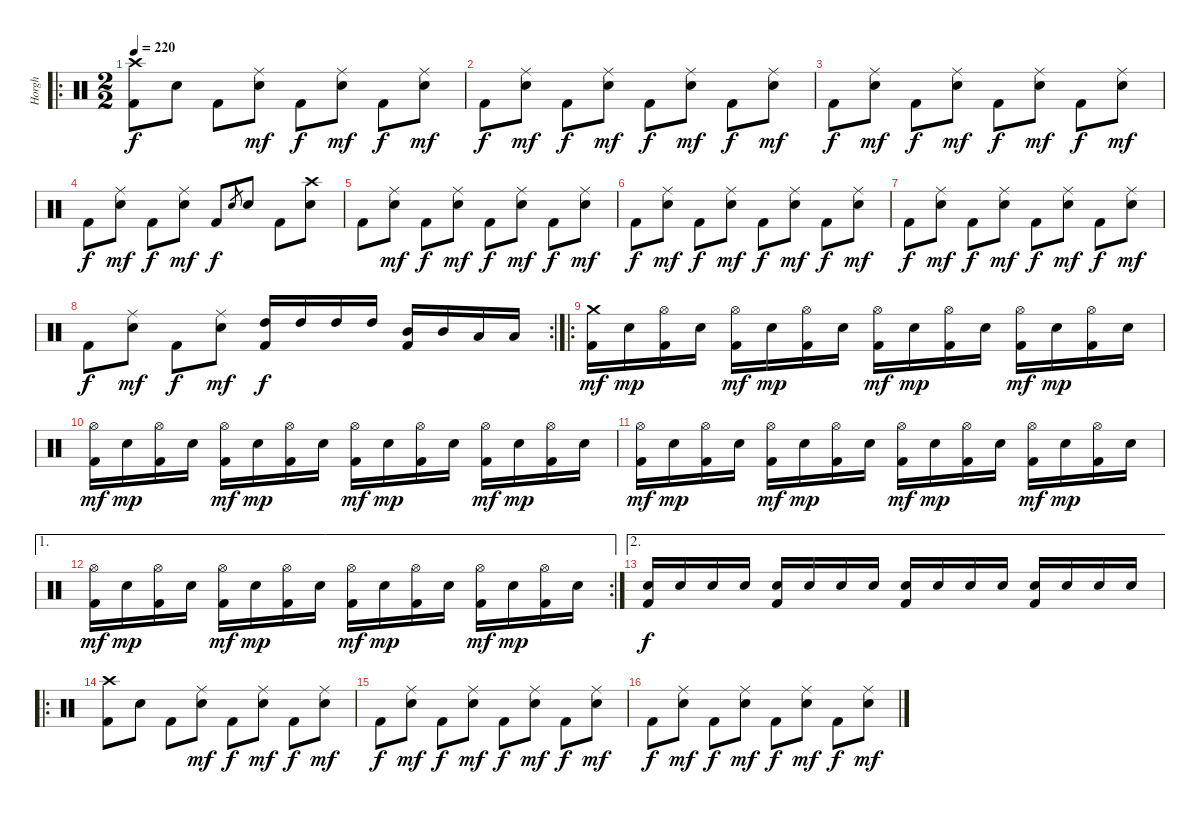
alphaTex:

\track ("Horgh" "Horgh") {instrument percussion}
\staff {score}
\articulation defaults
\ro
\ts (2 2)
\tempo 220
\clef neutral
\ks c
("Crash high (hit)" "Kick (hit) 2").8{dy f} "Electric Snare (hit)".8 "Kick (hit) 2".8 ("Ride (middle)" "Electric Snare (hit)").8{dy mf} "Kick (hit) 2".8{dy f} ("Ride (middle)" "Electric Snare (hit)").8{dy mf} "Kick (hit) 2".8{dy f} ("Ride (middle)" "Electric Snare (hit)").8{dy mf} |
"Kick (hit) 2".8{dy f} ("Ride (middle)" "Electric Snare (hit)").8{dy mf} "Kick (hit) 2".8{dy f} ("Ride (middle)" "Electric Snare (hit)").8{dy mf} "Kick (hit) 2".8{dy f} ("Ride (middle)" "Electric Snare (hit)").8{dy mf} "Kick (hit) 2".8{dy f} ("Ride (middle)" "Electric Snare (hit)").8{dy mf} |
"Kick (hit) 2".8{dy f} ("Ride (middle)" "Electric Snare (hit)").8{dy mf} "Kick (hit) 2".8{dy f} ("Ride (middle)" "Electric Snare (hit)").8{dy mf} "Kick (hit) 2".8{dy f} ("Ride (middle)" "Electric Snare (hit)").8{dy mf} "Kick (hit) 2".8{dy f} ("Ride (middle)" "Electric Snare (hit)").8{dy mf} |
"Kick (hit) 2".8{dy f} ("Ride (middle)" "Electric Snare (hit)").8{dy mf} "Kick (hit) 2".8{dy f} ("Ride (middle)" "Electric Snare (hit)").8{dy mf} "Kick (hit) 2".8{dy f} "Electric Snare (hit)".8{gr} "Electric Snare (hit)".8 "Kick (hit) 2".8 ("Crash high (hit)" "Electric Snare (hit)").8 |
"Kick (hit) 2".8 ("Ride (middle)" "Electric Snare (hit)").8{dy mf} "Kick (hit) 2".8{dy f} ("Ride (middle)" "Electric Snare (hit)").8{dy mf} "Kick (hit) 2".8{dy f} ("Ride (middle)" "Electric Snare (hit)").8{dy mf} "Kick (hit) 2".8{dy f} ("Ride (middle)" "Electric Snare (hit)").8{dy mf} |
"Kick (hit) 2".8{dy f} ("Ride (middle)" "Electric Snare (hit)").8{dy mf} "Kick (hit) 2".8{dy f} ("Ride (middle)" "Electric Snare (hit)").8{dy mf} "Kick (hit) 2".8{dy f} ("Ride (middle)" "Electric Snare (hit)").8{dy mf} "Kick (hit) 2".8{dy f} ("Ride (middle)" "Electric Snare (hit)").8{dy mf} |
"Kick (hit) 2".8{dy f} ("Ride (middle)" "Electric Snare (hit)").8{dy mf} "Kick (hit) 2".8{dy f} ("Ride (middle)" "Electric Snare (hit)").8{dy mf} "Kick (hit) 2".8{dy f} ("Ride (middle)" "Electric Snare (hit)").8{dy mf} "Kick (hit) 2".8{dy f} ("Ride (middle)" "Electric Snare (hit)").8{dy mf} |
\rc 2 "Kick (hit) 2".8{dy f}
("Ride (middle)" "Electric Snare (hit)").8{dy mf} "Kick (hit) 2".8{dy f} ("Ride (middle)" "Electric Snare (hit)").8{dy mf} ("High Tom (hit)" "Kick (hit) 2").16{dy f} "High Tom (hit)".16 "High Tom (hit)".16 "High Tom (hit)".16 ("Mid Tom (hit)" "Kick (hit) 2").16 "Mid Tom (hit)".16 "Low Tom (hit)".16 "Low Tom (hit)".16 |
\ro
("Crash medium (hit)" "Kick (hit) 2").16{dy mf} "Electric Snare (hit)".16{dy mp} ("Hi-Hat (open)" "Kick (hit) 2").16 "Electric Snare (hit)".16 ("Hi-Hat (open)" "Kick (hit) 2").16{dy mf} "Electric Snare (hit)".16{dy mp} ("Hi-Hat (open)" "Kick (hit) 2").16 "Electric Snare (hit)".16 ("Hi-Hat (open)" "Kick (hit) 2").16{dy mf} "Electric Snare (hit)".16{dy mp} ("Hi-Hat (open)" "Kick (hit) 2").16 "Electric Snare (hit)".16 ("Hi-Hat (open)" "Kick (hit) 2").16{dy mf} "Electric Snare (hit)".16{dy mp} ("Hi-Hat (open)" "Kick (hit) 2").16 "Electric Snare (hit)".16 |
("Hi-Hat (open)" "Kick (hit) 2").16{dy mf} "Electric Snare (hit)".16{dy mp} ("Hi-Hat (open)" "Kick (hit) 2").16 "Electric Snare (hit)".16 ("Hi-Hat (open)" "Kick (hit) 2").16{dy mf} "Electric Snare (hit)".16{dy mp} ("Hi-Hat (open)" "Kick (hit) 2").16 "Electric Snare (hit)".16 ("Hi-Hat (open)" "Kick (hit) 2").16{dy mf} "Electric Snare (hit)".16{dy mp} ("Hi-Hat (open)" "Kick (hit) 2").16 "Electric Snare (hit)".16 ("Hi-Hat (open)" "Kick (hit) 2").16{dy mf} "Electric Snare (hit)".16{dy mp} ("Hi-Hat (open)" "Kick (hit) 2").16 "Electric Snare (hit)".16 |
("Hi-Hat (open)" "Kick (hit) 2").16{dy mf} "Electric Snare (hit)".16{dy mp} ("Hi-Hat (open)" "Kick (hit) 2").16 "Electric Snare (hit)".16 ("Hi-Hat (open)" "Kick (hit) 2").16{dy mf} "Electric Snare (hit)".16{dy mp} ("Hi-Hat (open)" "Kick (hit) 2").16 "Electric Snare (hit)".16 ("Hi-Hat (open)" "Kick (hit) 2").16{dy mf} "Electric Snare (hit)".16{dy mp} ("Hi-Hat (open)" "Kick (hit) 2").16 "Electric Snare (hit)".16 ("Hi-Hat (open)" "Kick (hit) 2").16{dy mf} "Electric Snare (hit)".16{dy mp} ("Hi-Hat (open)" "Kick (hit) 2").16 "Electric Snare (hit)".16 |
\ae 1
\rc 2
("Hi-Hat (open)" "Kick (hit) 2").16{dy mf} "Electric Snare (hit)".16{dy mp} ("Hi-Hat (open)" "Kick (hit) 2").16 "Electric Snare (hit)".16 ("Hi-Hat (open)" "Kick (hit) 2").16{dy mf} "Electric Snare (hit)".16{dy mp} ("Hi-Hat (open)" "Kick (hit) 2").16 "Electric Snare (hit)".16 ("Hi-Hat (open)" "Kick (hit) 2").16{dy mf} "Electric Snare (hit)".16{dy mp} ("Hi-Hat (open)" "Kick (hit) 2").16 "Electric Snare (hit)".16 ("Hi-Hat (open)" "Kick (hit) 2").16{dy mf} "Electric Snare (hit)".16{dy mp} ("Hi-Hat (open)" "Kick (hit) 2").16 "Electric Snare (hit)".16 |
\ae 2
("Electric Snare (hit)" "Kick (hit) 2").16{dy f} "Electric Snare (hit)".16 "Electric Snare (hit)".16 "Electric Snare (hit)".16 ("Electric Snare (hit)" "Kick (hit) 2").16 "Electric Snare (hit)".16 "Electric Snare (hit)".16 "Electric Snare (hit)".16 ("Electric Snare (hit)" "Kick (hit) 2").16 "Electric Snare (hit)".16 "Electric Snare (hit)".16 "Electric Snare (hit)".16 ("Electric Snare (hit)" "Kick (hit) 2").16 "Electric Snare (hit)".16 "Electric Snare (hit)".16 "Electric Snare (hit)".16 |
\ro
("Crash high (hit)" "Kick (hit) 2").8 "Electric Snare (hit)".8 "Kick (hit) 2".8 ("Ride (middle)" "Electric Snare (hit)").8{dy mf} "Kick (hit) 2".8{dy f} ("Ride (middle)" "Electric Snare (hit)").8{dy mf} "Kick (hit) 2".8{dy f} ("Ride (middle)" "Electric Snare (hit)").8{dy mf} |
"Kick (hit) 2".8{dy f} ("Ride (middle)" "Electric Snare (hit)").8{dy mf} "Kick (hit) 2".8{dy f} ("Ride (middle)" "Electric Snare (hit)").8{dy mf} "Kick (hit) 2".8{dy f} ("Ride (middle)" "Electric Snare (hit)").8{dy mf} "Kick (hit) 2".8{dy f} ("Ride (middle)" "Electric Snare (hit)").8{dy mf} |
"Kick (hit) 2".8{dy f} ("Ride (middle)" "Electric Snare (hit)").8{dy mf} "Kick (hit) 2".8{dy f} ("Ride (middle)" "Electric Snare (hit)").8{dy mf} "Kick (hit) 2".8{dy f} ("Ride (middle)" "Electric Snare (hit)").8{dy mf} "Kick (hit) 2".8{dy f} ("Ride (middle)" "Electric Snare (hit)").8{dy mf}
